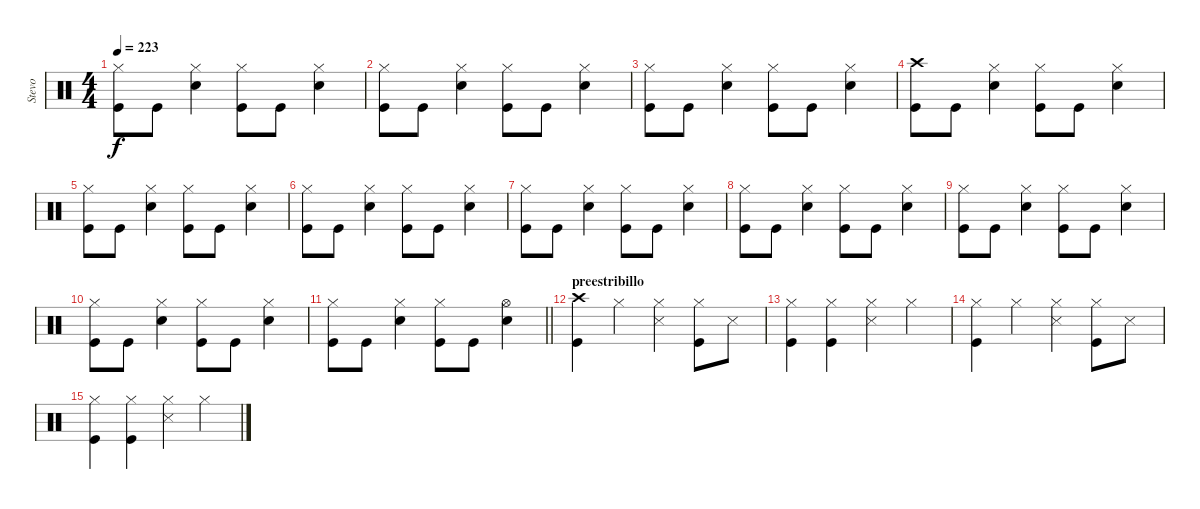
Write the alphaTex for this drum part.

\track ("Stevo" "Stevo") {instrument percussion}
\staff {score}
\articulation defaults
\ts (4 4)
\tempo 223
\clef neutral
\ks c
("Hi-Hat (closed)" "Kick (hit)").8{dy f} "Kick (hit)".8 ("Hi-Hat (closed)" "Electric Snare (hit)").4 ("Hi-Hat (closed)" "Kick (hit)").8 "Kick (hit)".8 ("Hi-Hat (closed)" "Electric Snare (hit)").4 |
("Hi-Hat (closed)" "Kick (hit)").8 "Kick (hit)".8 ("Hi-Hat (closed)" "Electric Snare (hit)").4 ("Hi-Hat (closed)" "Kick (hit)").8 "Kick (hit)".8 ("Hi-Hat (closed)" "Electric Snare (hit)").4 |
("Hi-Hat (closed)" "Kick (hit)").8 "Kick (hit)".8 ("Hi-Hat (closed)" "Electric Snare (hit)").4 ("Hi-Hat (closed)" "Kick (hit)").8 "Kick (hit)".8 ("Hi-Hat (closed)" "Electric Snare (hit)").4 |
("Crash high (hit)" "Kick (hit)").8 "Kick (hit)".8 ("Hi-Hat (closed)" "Electric Snare (hit)").4 ("Hi-Hat (closed)" "Kick (hit)").8 "Kick (hit)".8 ("Hi-Hat (closed)" "Electric Snare (hit)").4 |
("Hi-Hat (closed)" "Kick (hit)").8 "Kick (hit)".8 ("Hi-Hat (closed)" "Electric Snare (hit)").4 ("Hi-Hat (closed)" "Kick (hit)").8 "Kick (hit)".8 ("Hi-Hat (closed)" "Electric Snare (hit)").4 |
("Hi-Hat (closed)" "Kick (hit)").8 "Kick (hit)".8 ("Hi-Hat (closed)" "Electric Snare (hit)").4 ("Hi-Hat (closed)" "Kick (hit)").8 "Kick (hit)".8 ("Hi-Hat (closed)" "Electric Snare (hit)").4 |
("Hi-Hat (closed)" "Kick (hit)").8 "Kick (hit)".8 ("Hi-Hat (closed)" "Electric Snare (hit)").4 ("Hi-Hat (closed)" "Kick (hit)").8 "Kick (hit)".8 ("Hi-Hat (closed)" "Electric Snare (hit)").4 |
("Hi-Hat (closed)" "Kick (hit)").8 "Kick (hit)".8 ("Hi-Hat (closed)" "Electric Snare (hit)").4 ("Hi-Hat (closed)" "Kick (hit)").8 "Kick (hit)".8 ("Hi-Hat (closed)" "Electric Snare (hit)").4 |
("Hi-Hat (closed)" "Kick (hit)").8 "Kick (hit)".8 ("Hi-Hat (closed)" "Electric Snare (hit)").4 ("Hi-Hat (closed)" "Kick (hit)").8 "Kick (hit)".8 ("Hi-Hat (closed)" "Electric Snare (hit)").4 |
("Hi-Hat (closed)" "Kick (hit)").8 "Kick (hit)".8 ("Hi-Hat (closed)" "Electric Snare (hit)").4 ("Hi-Hat (closed)" "Kick (hit)").8 "Kick (hit)".8 ("Hi-Hat (closed)" "Electric Snare (hit)").4 |
\barLineRight lightlight
("Hi-Hat (closed)" "Kick (hit)").8 "Kick (hit)".8 ("Hi-Hat (closed)" "Electric Snare (hit)").4 ("Hi-Hat (closed)" "Kick (hit)").8 "Kick (hit)".8 ("Hi-Hat (open)" "Electric Snare (hit)").4 |
\section ("" "preestribillo")
("Crash high (hit)" "Kick (hit)").4 "Hi-Hat (closed)".4 ("Hi-Hat (closed)" "Snare (side stick) 3").4 ("Hi-Hat (closed)" "Kick (hit)").8 "Snare (side stick) 3".8 |
("Hi-Hat (closed)" "Kick (hit)").4 ("Hi-Hat (closed)" "Kick (hit)").4 ("Hi-Hat (closed)" "Snare (side stick) 3").4 "Hi-Hat (closed)".4 |
("Hi-Hat (closed)" "Kick (hit)").4 "Hi-Hat (closed)".4 ("Hi-Hat (closed)" "Snare (side stick) 3").4 ("Hi-Hat (closed)" "Kick (hit)").8 "Snare (side stick) 3".8 |
("Hi-Hat (closed)" "Kick (hit)").4 ("Hi-Hat (closed)" "Kick (hit)").4 ("Hi-Hat (closed)" "Snare (side stick) 3").4 "Hi-Hat (closed)".4
